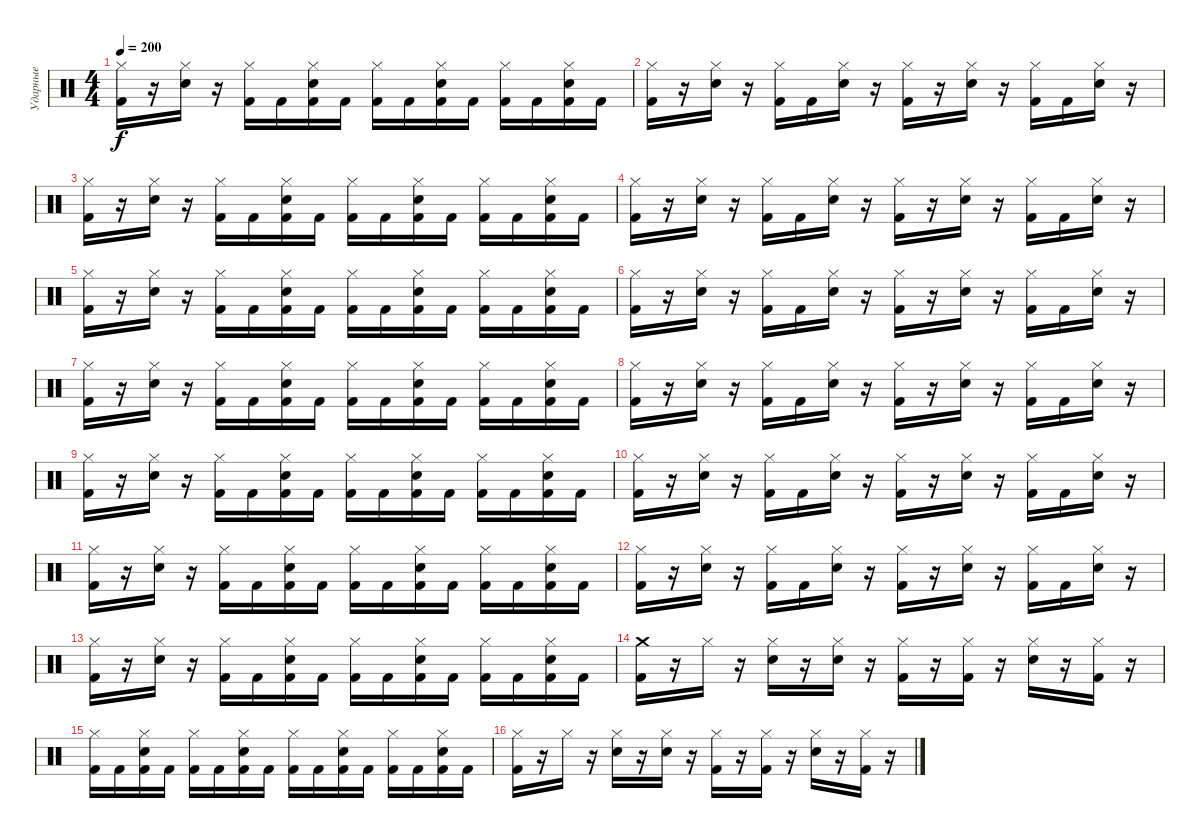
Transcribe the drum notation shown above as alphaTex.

\track ("Ударные" "Ударные") {instrument percussion}
\staff {score}
\articulation defaults
\ts (4 4)
\tempo 200
\clef neutral
\ks c
("Hi-Hat (closed)" "Kick (hit) 2").16{dy f} r.16 ("Hi-Hat (closed)" "Electric Snare (hit)").16 r.16 ("Hi-Hat (closed)" "Kick (hit) 2").16 "Kick (hit) 2".16 ("Hi-Hat (closed)" "Electric Snare (hit)" "Kick (hit) 2").16 "Kick (hit) 2".16 ("Hi-Hat (closed)" "Kick (hit) 2").16 "Kick (hit) 2".16 ("Hi-Hat (closed)" "Kick (hit) 2" "Electric Snare (hit)").16 "Kick (hit) 2".16 ("Hi-Hat (closed)" "Kick (hit) 2").16 "Kick (hit) 2".16 ("Hi-Hat (closed)" "Kick (hit) 2" "Electric Snare (hit)").16 "Kick (hit) 2".16 |
("Hi-Hat (closed)" "Kick (hit) 2").16 r.16 ("Hi-Hat (closed)" "Electric Snare (hit)").16 r.16 ("Hi-Hat (closed)" "Kick (hit) 2").16 "Kick (hit) 2".16 ("Hi-Hat (closed)" "Electric Snare (hit)").16 r.16 ("Hi-Hat (closed)" "Kick (hit) 2").16 r.16 ("Hi-Hat (closed)" "Electric Snare (hit)").16 r.16 ("Hi-Hat (closed)" "Kick (hit) 2").16 "Kick (hit) 2".16 ("Hi-Hat (closed)" "Electric Snare (hit)").16 r.16 |
("Hi-Hat (closed)" "Kick (hit) 2").16 r.16 ("Hi-Hat (closed)" "Electric Snare (hit)").16 r.16 ("Hi-Hat (closed)" "Kick (hit) 2").16 "Kick (hit) 2".16 ("Hi-Hat (closed)" "Electric Snare (hit)" "Kick (hit) 2").16 "Kick (hit) 2".16 ("Hi-Hat (closed)" "Kick (hit) 2").16 "Kick (hit) 2".16 ("Hi-Hat (closed)" "Kick (hit) 2" "Electric Snare (hit)").16 "Kick (hit) 2".16 ("Hi-Hat (closed)" "Kick (hit) 2").16 "Kick (hit) 2".16 ("Hi-Hat (closed)" "Kick (hit) 2" "Electric Snare (hit)").16 "Kick (hit) 2".16 |
("Hi-Hat (closed)" "Kick (hit) 2").16 r.16 ("Hi-Hat (closed)" "Electric Snare (hit)").16 r.16 ("Hi-Hat (closed)" "Kick (hit) 2").16 "Kick (hit) 2".16 ("Hi-Hat (closed)" "Electric Snare (hit)").16 r.16 ("Hi-Hat (closed)" "Kick (hit) 2").16 r.16 ("Hi-Hat (closed)" "Electric Snare (hit)").16 r.16 ("Hi-Hat (closed)" "Kick (hit) 2").16 "Kick (hit) 2".16 ("Hi-Hat (closed)" "Electric Snare (hit)").16 r.16 |
("Hi-Hat (closed)" "Kick (hit) 2").16 r.16 ("Hi-Hat (closed)" "Electric Snare (hit)").16 r.16 ("Hi-Hat (closed)" "Kick (hit) 2").16 "Kick (hit) 2".16 ("Hi-Hat (closed)" "Electric Snare (hit)" "Kick (hit) 2").16 "Kick (hit) 2".16 ("Hi-Hat (closed)" "Kick (hit) 2").16 "Kick (hit) 2".16 ("Hi-Hat (closed)" "Kick (hit) 2" "Electric Snare (hit)").16 "Kick (hit) 2".16 ("Hi-Hat (closed)" "Kick (hit) 2").16 "Kick (hit) 2".16 ("Hi-Hat (closed)" "Kick (hit) 2" "Electric Snare (hit)").16 "Kick (hit) 2".16 |
("Hi-Hat (closed)" "Kick (hit) 2").16 r.16 ("Hi-Hat (closed)" "Electric Snare (hit)").16 r.16 ("Hi-Hat (closed)" "Kick (hit) 2").16 "Kick (hit) 2".16 ("Hi-Hat (closed)" "Electric Snare (hit)").16 r.16 ("Hi-Hat (closed)" "Kick (hit) 2").16 r.16 ("Hi-Hat (closed)" "Electric Snare (hit)").16 r.16 ("Hi-Hat (closed)" "Kick (hit) 2").16 "Kick (hit) 2".16 ("Hi-Hat (closed)" "Electric Snare (hit)").16 r.16 |
("Hi-Hat (closed)" "Kick (hit) 2").16 r.16 ("Hi-Hat (closed)" "Electric Snare (hit)").16 r.16 ("Hi-Hat (closed)" "Kick (hit) 2").16 "Kick (hit) 2".16 ("Hi-Hat (closed)" "Electric Snare (hit)" "Kick (hit) 2").16 "Kick (hit) 2".16 ("Hi-Hat (closed)" "Kick (hit) 2").16 "Kick (hit) 2".16 ("Hi-Hat (closed)" "Kick (hit) 2" "Electric Snare (hit)").16 "Kick (hit) 2".16 ("Hi-Hat (closed)" "Kick (hit) 2").16 "Kick (hit) 2".16 ("Hi-Hat (closed)" "Kick (hit) 2" "Electric Snare (hit)").16 "Kick (hit) 2".16 |
("Hi-Hat (closed)" "Kick (hit) 2").16 r.16 ("Hi-Hat (closed)" "Electric Snare (hit)").16 r.16 ("Hi-Hat (closed)" "Kick (hit) 2").16 "Kick (hit) 2".16 ("Hi-Hat (closed)" "Electric Snare (hit)").16 r.16 ("Hi-Hat (closed)" "Kick (hit) 2").16 r.16 ("Hi-Hat (closed)" "Electric Snare (hit)").16 r.16 ("Hi-Hat (closed)" "Kick (hit) 2").16 "Kick (hit) 2".16 ("Hi-Hat (closed)" "Electric Snare (hit)").16 r.16 |
("Hi-Hat (closed)" "Kick (hit) 2").16 r.16 ("Hi-Hat (closed)" "Electric Snare (hit)").16 r.16 ("Hi-Hat (closed)" "Kick (hit) 2").16 "Kick (hit) 2".16 ("Hi-Hat (closed)" "Electric Snare (hit)" "Kick (hit) 2").16 "Kick (hit) 2".16 ("Hi-Hat (closed)" "Kick (hit) 2").16 "Kick (hit) 2".16 ("Hi-Hat (closed)" "Kick (hit) 2" "Electric Snare (hit)").16 "Kick (hit) 2".16 ("Hi-Hat (closed)" "Kick (hit) 2").16 "Kick (hit) 2".16 ("Hi-Hat (closed)" "Kick (hit) 2" "Electric Snare (hit)").16 "Kick (hit) 2".16 |
("Hi-Hat (closed)" "Kick (hit) 2").16 r.16 ("Hi-Hat (closed)" "Electric Snare (hit)").16 r.16 ("Hi-Hat (closed)" "Kick (hit) 2").16 "Kick (hit) 2".16 ("Hi-Hat (closed)" "Electric Snare (hit)").16 r.16 ("Hi-Hat (closed)" "Kick (hit) 2").16 r.16 ("Hi-Hat (closed)" "Electric Snare (hit)").16 r.16 ("Hi-Hat (closed)" "Kick (hit) 2").16 "Kick (hit) 2".16 ("Hi-Hat (closed)" "Electric Snare (hit)").16 r.16 |
("Hi-Hat (closed)" "Kick (hit) 2").16 r.16 ("Hi-Hat (closed)" "Electric Snare (hit)").16 r.16 ("Hi-Hat (closed)" "Kick (hit) 2").16 "Kick (hit) 2".16 ("Hi-Hat (closed)" "Electric Snare (hit)" "Kick (hit) 2").16 "Kick (hit) 2".16 ("Hi-Hat (closed)" "Kick (hit) 2").16 "Kick (hit) 2".16 ("Hi-Hat (closed)" "Kick (hit) 2" "Electric Snare (hit)").16 "Kick (hit) 2".16 ("Hi-Hat (closed)" "Kick (hit) 2").16 "Kick (hit) 2".16 ("Hi-Hat (closed)" "Kick (hit) 2" "Electric Snare (hit)").16 "Kick (hit) 2".16 |
("Hi-Hat (closed)" "Kick (hit) 2").16 r.16 ("Hi-Hat (closed)" "Electric Snare (hit)").16 r.16 ("Hi-Hat (closed)" "Kick (hit) 2").16 "Kick (hit) 2".16 ("Hi-Hat (closed)" "Electric Snare (hit)").16 r.16 ("Hi-Hat (closed)" "Kick (hit) 2").16 r.16 ("Hi-Hat (closed)" "Electric Snare (hit)").16 r.16 ("Hi-Hat (closed)" "Kick (hit) 2").16 "Kick (hit) 2".16 ("Hi-Hat (closed)" "Electric Snare (hit)").16 r.16 |
("Hi-Hat (closed)" "Kick (hit) 2").16 r.16 ("Hi-Hat (closed)" "Electric Snare (hit)").16 r.16 ("Hi-Hat (closed)" "Kick (hit) 2").16 "Kick (hit) 2".16 ("Hi-Hat (closed)" "Electric Snare (hit)" "Kick (hit) 2").16 "Kick (hit) 2".16 ("Hi-Hat (closed)" "Kick (hit) 2").16 "Kick (hit) 2".16 ("Hi-Hat (closed)" "Kick (hit) 2" "Electric Snare (hit)").16 "Kick (hit) 2".16 ("Hi-Hat (closed)" "Kick (hit) 2").16 "Kick (hit) 2".16 ("Hi-Hat (closed)" "Kick (hit) 2" "Electric Snare (hit)").16 "Kick (hit) 2".16 |
("Kick (hit) 2" "Crash medium (hit)").16 r.16 "Hi-Hat (closed)".16 r.16 ("Electric Snare (hit)" "Hi-Hat (closed)").16 r.16 ("Electric Snare (hit)" "Hi-Hat (closed)").16 r.16 ("Kick (hit) 2" "Hi-Hat (closed)").16 r.16 ("Kick (hit) 2" "Hi-Hat (closed)").16 r.16 ("Electric Snare (hit)" "Hi-Hat (closed)").16 r.16 ("Kick (hit) 2" "Hi-Hat (closed)").16 r.16 |
("Kick (hit) 2" "Hi-Hat (closed)").16 "Kick (hit) 2".16 ("Kick (hit) 2" "Electric Snare (hit)" "Hi-Hat (closed)").16 "Kick (hit) 2".16 ("Kick (hit) 2" "Hi-Hat (closed)").16 "Kick (hit) 2".16 ("Kick (hit) 2" "Electric Snare (hit)" "Hi-Hat (closed)").16 "Kick (hit) 2".16 ("Kick (hit) 2" "Hi-Hat (closed)").16 "Kick (hit) 2".16 ("Kick (hit) 2" "Electric Snare (hit)" "Hi-Hat (closed)").16 "Kick (hit) 2".16 ("Kick (hit) 2" "Hi-Hat (closed)").16 "Kick (hit) 2".16 ("Kick (hit) 2" "Electric Snare (hit)" "Hi-Hat (closed)").16 "Kick (hit) 2".16 |
("Kick (hit) 2" "Hi-Hat (closed)").16 r.16 "Hi-Hat (closed)".16 r.16 ("Electric Snare (hit)" "Hi-Hat (closed)").16 r.16 ("Electric Snare (hit)" "Hi-Hat (closed)").16 r.16 ("Kick (hit) 2" "Hi-Hat (closed)").16 r.16 ("Kick (hit) 2" "Hi-Hat (closed)").16 r.16 ("Electric Snare (hit)" "Hi-Hat (closed)").16 r.16 ("Kick (hit) 2" "Hi-Hat (closed)").16 r.16
